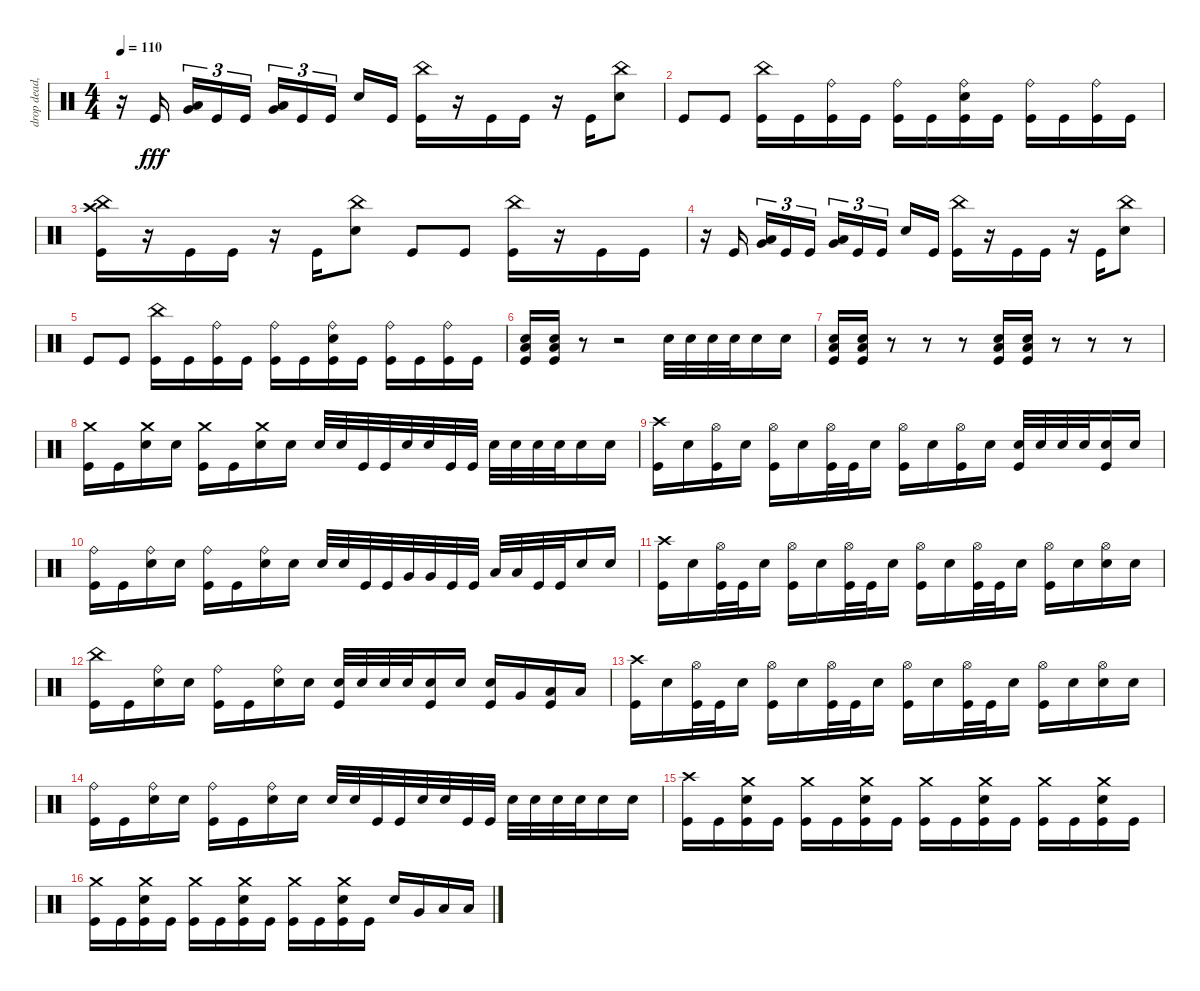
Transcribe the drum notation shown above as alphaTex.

\track ("drop dead, johnny" "drop dead,") {instrument percussion}
\staff {score}
\articulation defaults
\ts (4 4)
\tempo 110
\clef neutral
\ks c
r.16{dy fff} "Kick (hit)".16{beam splitsecondary} ("Very Low Tom (hit)" "Low Floor Tom (hit)").16{tu (3 2)} "Kick (hit)".16{tu (3 2)} "Kick (hit)".16{tu (3 2)} ("Very Low Tom (hit)" "Low Floor Tom (hit)").16{tu (3 2)} "Kick (hit)".16{tu (3 2)} "Kick (hit)".16{tu (3 2) beam splitsecondary} "Electric Snare (hit)".16 "Kick (hit)".16 ("China (hit)" "Kick (hit)").16 r.16 "Kick (hit)".16 "Kick (hit)".16 r.16 "Kick (hit)".16 ("China (hit)" "Electric Snare (hit)").8 |
"Kick (hit)".8 "Kick (hit)".8 ("China (hit)" "Kick (hit)").16 "Kick (hit)".16 ("Ride (bell)" "Kick (hit)").16 "Kick (hit)".16 ("Ride (bell)" "Kick (hit)").16 "Kick (hit)".16 ("Ride (bell)" "Electric Snare (hit)" "Kick (hit)").16 "Kick (hit)".16 ("Ride (bell)" "Kick (hit)").16 "Kick (hit)".16 ("Ride (bell)" "Kick (hit)").16 "Kick (hit)".16 |
("Crash high (hit)" "China (hit)" "Kick (hit)").16 r.16 "Kick (hit)".16 "Kick (hit)".16 r.16 "Kick (hit)".16 ("China (hit)" "Electric Snare (hit)").8 "Kick (hit)".8 "Kick (hit)".8 ("China (hit)" "Kick (hit)").16 r.16 "Kick (hit)".16 "Kick (hit)".16 |
r.16 "Kick (hit)".16{beam splitsecondary} ("Very Low Tom (hit)" "Low Floor Tom (hit)").16{tu (3 2)} "Kick (hit)".16{tu (3 2)} "Kick (hit)".16{tu (3 2)} ("Very Low Tom (hit)" "Low Floor Tom (hit)").16{tu (3 2)} "Kick (hit)".16{tu (3 2)} "Kick (hit)".16{tu (3 2) beam splitsecondary} "Electric Snare (hit)".16 "Kick (hit)".16 ("China (hit)" "Kick (hit)").16 r.16 "Kick (hit)".16 "Kick (hit)".16 r.16 "Kick (hit)".16 ("China (hit)" "Electric Snare (hit)").8 |
"Kick (hit)".8 "Kick (hit)".8 ("China (hit)" "Kick (hit)").16 "Kick (hit)".16 ("Ride (bell)" "Kick (hit)").16 "Kick (hit)".16 ("Ride (bell)" "Kick (hit)").16 "Kick (hit)".16 ("Ride (bell)" "Electric Snare (hit)" "Kick (hit)").16 "Kick (hit)".16 ("Ride (bell)" "Kick (hit)").16 "Kick (hit)".16 ("Ride (bell)" "Kick (hit)").16 "Kick (hit)".16 |
("Low Floor Tom (hit)" "Electric Snare (hit)" "Kick (hit)").16 ("Low Floor Tom (hit)" "Electric Snare (hit)" "Kick (hit)").16 r.8 r.2 "Electric Snare (hit)".32 "Electric Snare (hit)".32 "Electric Snare (hit)".32 "Electric Snare (hit)".32 "Electric Snare (hit)".16 "Electric Snare (hit)".16 |
("Low Floor Tom (hit)" "Electric Snare (hit)" "Kick (hit)").16 ("Low Floor Tom (hit)" "Electric Snare (hit)" "Kick (hit)").16 r.8 r.8 r.8 ("Low Floor Tom (hit)" "Electric Snare (hit)" "Kick (hit)").16 ("Low Floor Tom (hit)" "Electric Snare (hit)" "Kick (hit)").16 r.8 r.8 r.8 |
("Crash medium (hit)" "Kick (hit)").16 "Kick (hit)".16 ("Crash medium (hit)" "Electric Snare (hit)").16 "Electric Snare (hit)".16 ("Crash medium (hit)" "Kick (hit)").16 "Kick (hit)".16 ("Crash medium (hit)" "Electric Snare (hit)").16 "Electric Snare (hit)".16 "Electric Snare (hit)".32 "Electric Snare (hit)".32 "Kick (hit)".32 "Kick (hit)".32 "Electric Snare (hit)".32 "Electric Snare (hit)".32 "Kick (hit)".32 "Kick (hit)".32 "Electric Snare (hit)".32 "Electric Snare (hit)".32 "Electric Snare (hit)".32 "Electric Snare (hit)".32 "Electric Snare (hit)".16 "Electric Snare (hit)".16 |
("Crash high (hit)" "Kick (hit)").16 "Electric Snare (hit)".16 ("Hi-Hat (open)" "Kick (hit)").16 "Electric Snare (hit)".16 ("Hi-Hat (open)" "Kick (hit)").16 "Electric Snare (hit)".16 ("Hi-Hat (open)" "Kick (hit)").32 "Kick (hit)".32 "Electric Snare (hit)".16 ("Hi-Hat (open)" "Kick (hit)").16 "Electric Snare (hit)".16 ("Hi-Hat (open)" "Kick (hit)").16 "Electric Snare (hit)".16 ("Electric Snare (hit)" "Kick (hit)").32 "Electric Snare (hit)".32 "Electric Snare (hit)".32 "Electric Snare (hit)".32 ("Electric Snare (hit)" "Kick (hit)").16 "Electric Snare (hit)".16 |
("Ride (bell)" "Kick (hit)").16 "Kick (hit)".16 ("Ride (bell)" "Electric Snare (hit)").16 "Electric Snare (hit)".16 ("Ride (bell)" "Kick (hit)").16 "Kick (hit)".16 ("Ride (bell)" "Electric Snare (hit)").16 "Electric Snare (hit)".16 "Electric Snare (hit)".32 "Electric Snare (hit)".32 "Kick (hit)".32 "Kick (hit)".32 "Very Low Tom (hit)".32 "Very Low Tom (hit)".32 "Kick (hit)".32 "Kick (hit)".32 "Low Floor Tom (hit)".32 "Low Floor Tom (hit)".32 "Kick (hit)".32 "Kick (hit)".32 "Electric Snare (hit)".16 "Electric Snare (hit)".16 |
("Crash high (hit)" "Kick (hit)").16 "Electric Snare (hit)".16 ("Hi-Hat (open)" "Kick (hit)").32 "Kick (hit)".32 "Electric Snare (hit)".16 ("Hi-Hat (open)" "Kick (hit)").16 "Electric Snare (hit)".16 ("Hi-Hat (open)" "Kick (hit)").32 "Kick (hit)".32 "Electric Snare (hit)".16 ("Hi-Hat (open)" "Kick (hit)").16 "Electric Snare (hit)".16 ("Hi-Hat (open)" "Kick (hit)").32 "Kick (hit)".32 "Electric Snare (hit)".16 ("Hi-Hat (open)" "Kick (hit)").16 "Electric Snare (hit)".16 ("Hi-Hat (open)" "Electric Snare (hit)").16 "Electric Snare (hit)".16 |
("China (hit)" "Kick (hit)").16 "Kick (hit)".16 ("Ride (bell)" "Electric Snare (hit)").16 "Electric Snare (hit)".16 ("Ride (bell)" "Kick (hit)").16 "Kick (hit)".16 ("Ride (bell)" "Electric Snare (hit)").16 "Electric Snare (hit)".16 ("Electric Snare (hit)" "Kick (hit)").32 "Electric Snare (hit)".32 "Electric Snare (hit)".32 "Electric Snare (hit)".32 ("Electric Snare (hit)" "Kick (hit)").16 "Electric Snare (hit)".16 ("Electric Snare (hit)" "Kick (hit)").16 "Very Low Tom (hit)".16 ("Low Floor Tom (hit)" "Kick (hit)").16 "Low Floor Tom (hit)".16 |
("Crash high (hit)" "Kick (hit)").16 "Electric Snare (hit)".16 ("Hi-Hat (open)" "Kick (hit)").32 "Kick (hit)".32 "Electric Snare (hit)".16 ("Hi-Hat (open)" "Kick (hit)").16 "Electric Snare (hit)".16 ("Hi-Hat (open)" "Kick (hit)").32 "Kick (hit)".32 "Electric Snare (hit)".16 ("Hi-Hat (open)" "Kick (hit)").16 "Electric Snare (hit)".16 ("Hi-Hat (open)" "Kick (hit)").32 "Kick (hit)".32 "Electric Snare (hit)".16 ("Hi-Hat (open)" "Kick (hit)").16 "Electric Snare (hit)".16 ("Hi-Hat (open)" "Electric Snare (hit)").16 "Electric Snare (hit)".16 |
("Ride (bell)" "Kick (hit)").16 "Kick (hit)".16 ("Ride (bell)" "Electric Snare (hit)").16 "Electric Snare (hit)".16 ("Ride (bell)" "Kick (hit)").16 "Kick (hit)".16 ("Ride (bell)" "Electric Snare (hit)").16 "Electric Snare (hit)".16 "Electric Snare (hit)".32 "Electric Snare (hit)".32 "Kick (hit)".32 "Kick (hit)".32 "Electric Snare (hit)".32 "Electric Snare (hit)".32 "Kick (hit)".32 "Kick (hit)".32 "Electric Snare (hit)".32 "Electric Snare (hit)".32 "Electric Snare (hit)".32 "Electric Snare (hit)".32 "Electric Snare (hit)".16 "Electric Snare (hit)".16 |
("Crash high (hit)" "Kick (hit)").16 "Kick (hit)".16 ("Crash medium (hit)" "Electric Snare (hit)" "Kick (hit)").16 "Kick (hit)".16 ("Crash medium (hit)" "Kick (hit)").16 "Kick (hit)".16 ("Crash medium (hit)" "Electric Snare (hit)" "Kick (hit)").16 "Kick (hit)".16 ("Crash medium (hit)" "Kick (hit)").16 "Kick (hit)".16 ("Crash medium (hit)" "Electric Snare (hit)" "Kick (hit)").16 "Kick (hit)".16 ("Crash medium (hit)" "Kick (hit)").16 "Kick (hit)".16 ("Crash medium (hit)" "Electric Snare (hit)" "Kick (hit)").16 "Kick (hit)".16 |
("Crash medium (hit)" "Kick (hit)").16 "Kick (hit)".16 ("Crash medium (hit)" "Electric Snare (hit)" "Kick (hit)").16 "Kick (hit)".16 ("Crash medium (hit)" "Kick (hit)").16 "Kick (hit)".16 ("Crash medium (hit)" "Electric Snare (hit)" "Kick (hit)").16 "Kick (hit)".16 ("Crash medium (hit)" "Kick (hit)").16 "Kick (hit)".16 ("Crash medium (hit)" "Electric Snare (hit)" "Kick (hit)").16 "Kick (hit)".16 "Electric Snare (hit)".16 "Very Low Tom (hit)".16 "Low Floor Tom (hit)".16 "Low Floor Tom (hit)".16
